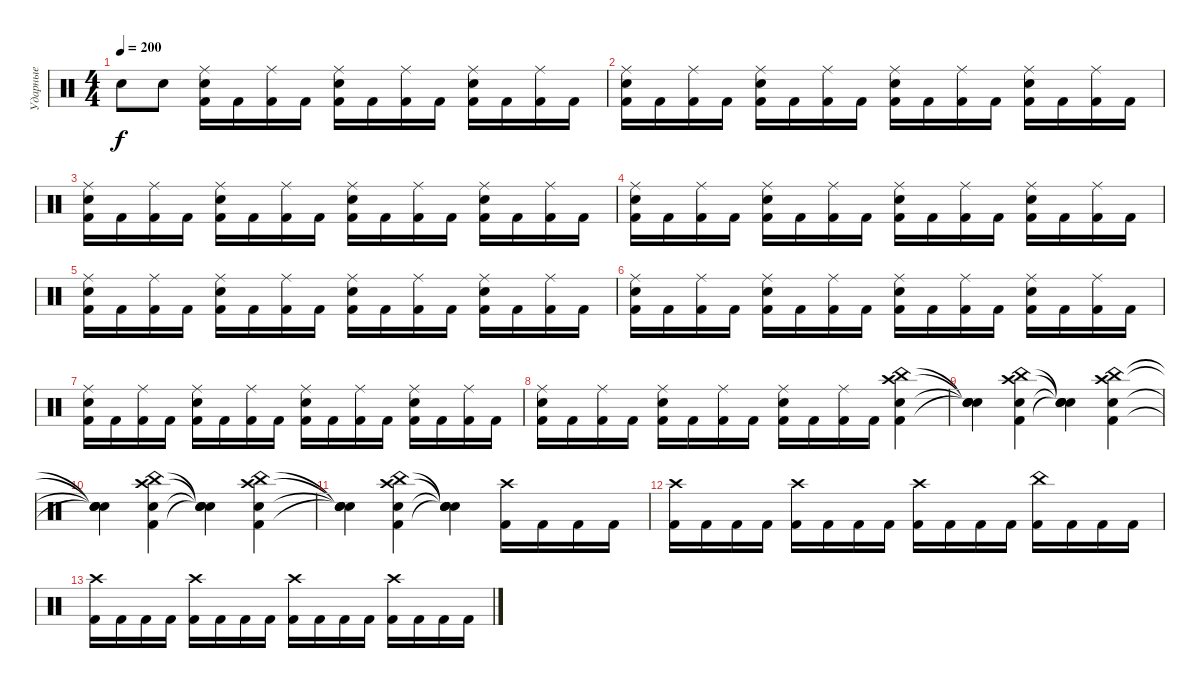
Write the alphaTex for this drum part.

\track ("Ударные" "Ударные") {instrument percussion}
\staff {score}
\articulation defaults
\ts (4 4)
\tempo 200
\clef neutral
\ks c "Electric Snare (hit)".8{dy f} "Electric Snare (hit)".8
("Kick (hit) 2" "Electric Snare (hit)" "Ride (middle)").16 "Kick (hit) 2".16 ("Kick (hit) 2" "Ride (middle)").16 "Kick (hit) 2".16 ("Kick (hit) 2" "Electric Snare (hit)" "Ride (middle)").16 "Kick (hit) 2".16 ("Kick (hit) 2" "Ride (middle)").16 "Kick (hit) 2".16 ("Kick (hit) 2" "Electric Snare (hit)" "Ride (middle)").16 "Kick (hit) 2".16 ("Kick (hit) 2" "Ride (middle)").16 "Kick (hit) 2".16 |
("Electric Snare (hit)" "Kick (hit) 2" "Ride (middle)").16 "Kick (hit) 2".16 ("Kick (hit) 2" "Ride (middle)").16 "Kick (hit) 2".16 ("Kick (hit) 2" "Electric Snare (hit)" "Ride (middle)").16 "Kick (hit) 2".16 ("Kick (hit) 2" "Ride (middle)").16 "Kick (hit) 2".16 ("Ride (middle)" "Kick (hit) 2" "Electric Snare (hit)").16 "Kick (hit) 2".16 ("Kick (hit) 2" "Ride (middle)").16 "Kick (hit) 2".16 ("Ride (middle)" "Kick (hit) 2" "Electric Snare (hit)").16 "Kick (hit) 2".16 ("Kick (hit) 2" "Ride (middle)").16 "Kick (hit) 2".16 |
("Electric Snare (hit)" "Kick (hit) 2" "Ride (middle)").16 "Kick (hit) 2".16 ("Kick (hit) 2" "Ride (middle)").16 "Kick (hit) 2".16 ("Kick (hit) 2" "Electric Snare (hit)" "Ride (middle)").16 "Kick (hit) 2".16 ("Kick (hit) 2" "Ride (middle)").16 "Kick (hit) 2".16 ("Ride (middle)" "Kick (hit) 2" "Electric Snare (hit)").16 "Kick (hit) 2".16 ("Kick (hit) 2" "Ride (middle)").16 "Kick (hit) 2".16 ("Ride (middle)" "Kick (hit) 2" "Electric Snare (hit)").16 "Kick (hit) 2".16 ("Kick (hit) 2" "Ride (middle)").16 "Kick (hit) 2".16 |
("Electric Snare (hit)" "Kick (hit) 2" "Ride (middle)").16 "Kick (hit) 2".16 ("Kick (hit) 2" "Ride (middle)").16 "Kick (hit) 2".16 ("Kick (hit) 2" "Electric Snare (hit)" "Ride (middle)").16 "Kick (hit) 2".16 ("Kick (hit) 2" "Ride (middle)").16 "Kick (hit) 2".16 ("Ride (middle)" "Kick (hit) 2" "Electric Snare (hit)").16 "Kick (hit) 2".16 ("Kick (hit) 2" "Ride (middle)").16 "Kick (hit) 2".16 ("Ride (middle)" "Kick (hit) 2" "Electric Snare (hit)").16 "Kick (hit) 2".16 ("Kick (hit) 2" "Ride (middle)").16 "Kick (hit) 2".16 |
("Electric Snare (hit)" "Kick (hit) 2" "Ride (middle)").16 "Kick (hit) 2".16 ("Kick (hit) 2" "Ride (middle)").16 "Kick (hit) 2".16 ("Kick (hit) 2" "Electric Snare (hit)" "Ride (middle)").16 "Kick (hit) 2".16 ("Kick (hit) 2" "Ride (middle)").16 "Kick (hit) 2".16 ("Ride (middle)" "Kick (hit) 2" "Electric Snare (hit)").16 "Kick (hit) 2".16 ("Kick (hit) 2" "Ride (middle)").16 "Kick (hit) 2".16 ("Ride (middle)" "Kick (hit) 2" "Electric Snare (hit)").16 "Kick (hit) 2".16 ("Kick (hit) 2" "Ride (middle)").16 "Kick (hit) 2".16 |
("Electric Snare (hit)" "Kick (hit) 2" "Ride (middle)").16 "Kick (hit) 2".16 ("Kick (hit) 2" "Ride (middle)").16 "Kick (hit) 2".16 ("Kick (hit) 2" "Electric Snare (hit)" "Ride (middle)").16 "Kick (hit) 2".16 ("Kick (hit) 2" "Ride (middle)").16 "Kick (hit) 2".16 ("Ride (middle)" "Kick (hit) 2" "Electric Snare (hit)").16 "Kick (hit) 2".16 ("Kick (hit) 2" "Ride (middle)").16 "Kick (hit) 2".16 ("Ride (middle)" "Kick (hit) 2" "Electric Snare (hit)").16 "Kick (hit) 2".16 ("Kick (hit) 2" "Ride (middle)").16 "Kick (hit) 2".16 |
("Electric Snare (hit)" "Kick (hit) 2" "Ride (middle)").16 "Kick (hit) 2".16 ("Kick (hit) 2" "Ride (middle)").16 "Kick (hit) 2".16 ("Kick (hit) 2" "Electric Snare (hit)" "Ride (middle)").16 "Kick (hit) 2".16 ("Kick (hit) 2" "Ride (middle)").16 "Kick (hit) 2".16 ("Ride (middle)" "Kick (hit) 2" "Electric Snare (hit)").16 "Kick (hit) 2".16 ("Kick (hit) 2" "Ride (middle)").16 "Kick (hit) 2".16 ("Ride (middle)" "Kick (hit) 2" "Electric Snare (hit)").16 "Kick (hit) 2".16 ("Kick (hit) 2" "Ride (middle)").16 "Kick (hit) 2".16 |
("Electric Snare (hit)" "Kick (hit) 2" "Ride (middle)").16 "Kick (hit) 2".16 ("Kick (hit) 2" "Ride (middle)").16 "Kick (hit) 2".16 ("Kick (hit) 2" "Electric Snare (hit)" "Ride (middle)").16 "Kick (hit) 2".16 ("Kick (hit) 2" "Ride (middle)").16 "Kick (hit) 2".16 ("Ride (middle)" "Kick (hit) 2" "Electric Snare (hit)").16 "Kick (hit) 2".16 ("Kick (hit) 2" "Ride (middle)").16 "Kick (hit) 2".16 ("Kick (hit) 2" "Electric Snare (hit)" "Crash high (hit)" "China (hit)").4 |
("Snare (hit)"{t} "Snare (hit)"{t} "Snare (hit)"{t} "Snare (hit)"{t}).4 ("Kick (hit) 2" "Electric Snare (hit)" "Crash high (hit)" "China (hit)").4 ("Snare (hit)"{t} "Snare (hit)"{t} "Snare (hit)"{t} "Snare (hit)"{t}).4 ("Kick (hit) 2" "Electric Snare (hit)" "Crash high (hit)" "China (hit)").4 |
("Snare (hit)"{t} "Snare (hit)"{t} "Snare (hit)"{t} "Snare (hit)"{t}).4 ("Kick (hit) 2" "Electric Snare (hit)" "Crash high (hit)" "China (hit)").4 ("Snare (hit)"{t} "Snare (hit)"{t} "Snare (hit)"{t} "Snare (hit)"{t}).4 ("China (hit)" "Crash high (hit)" "Kick (hit) 2" "Electric Snare (hit)").4 |
("Snare (hit)"{t} "Snare (hit)"{t} "Snare (hit)"{t} "Snare (hit)"{t}).4 ("Kick (hit) 2" "Electric Snare (hit)" "Crash high (hit)" "China (hit)").4 ("Snare (hit)"{t} "Snare (hit)"{t} "Snare (hit)"{t} "Snare (hit)"{t}).4 ("Kick (hit) 2" "Crash high (hit)").16 "Kick (hit) 2".16 "Kick (hit) 2".16 "Kick (hit) 2".16 |
("Kick (hit) 2" "Crash high (hit)").16 "Kick (hit) 2".16 "Kick (hit) 2".16 "Kick (hit) 2".16 ("Kick (hit) 2" "Crash high (hit)").16 "Kick (hit) 2".16 "Kick (hit) 2".16 "Kick (hit) 2".16 ("Kick (hit) 2" "Crash high (hit)").16 "Kick (hit) 2".16 "Kick (hit) 2".16 "Kick (hit) 2".16 ("Kick (hit) 2" "China (hit)").16 "Kick (hit) 2".16 "Kick (hit) 2".16 "Kick (hit) 2".16 |
("Kick (hit) 2" "Crash high (hit)").16 "Kick (hit) 2".16 "Kick (hit) 2".16 "Kick (hit) 2".16 ("Kick (hit) 2" "Crash high (hit)").16 "Kick (hit) 2".16 "Kick (hit) 2".16 "Kick (hit) 2".16 ("Kick (hit) 2" "Crash high (hit)").16 "Kick (hit) 2".16 "Kick (hit) 2".16 "Kick (hit) 2".16 ("Crash high (hit)" "Kick (hit) 2").16 "Kick (hit) 2".16 "Kick (hit) 2".16 "Kick (hit) 2".16
